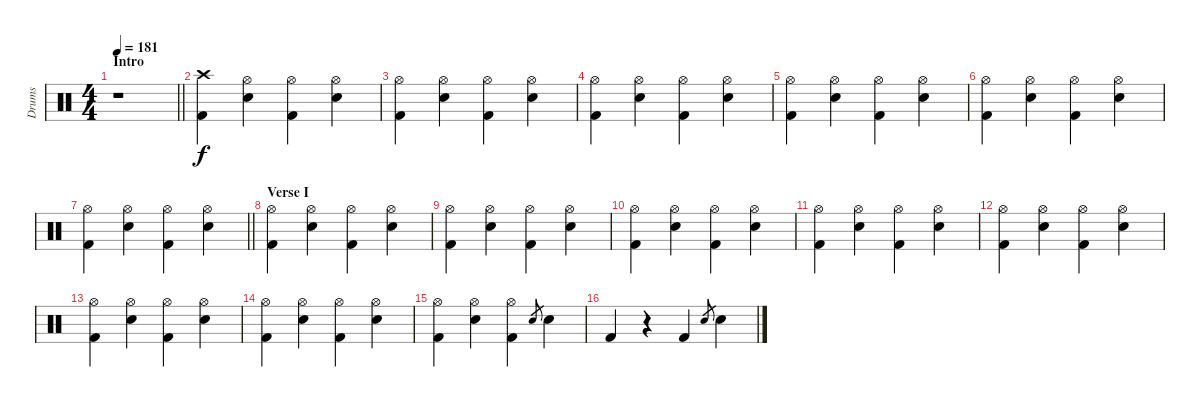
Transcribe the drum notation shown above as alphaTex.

\track ("Drums" "Drums") {instrument percussion}
\staff {score}
\articulation defaults
\ts (4 4)
\section ("" "Intro")
\tempo 181
\clef neutral
\barLineRight lightlight
\ks c
r.1{dy f} |
("Crash high (hit)" "Kick (hit) 2").4 ("Hi-Hat (open)" "Snare (hit) 2").4 ("Hi-Hat (open)" "Kick (hit) 2").4 ("Hi-Hat (open)" "Snare (hit) 2").4 |
("Hi-Hat (open)" "Kick (hit) 2").4 ("Hi-Hat (open)" "Snare (hit) 2").4 ("Hi-Hat (open)" "Kick (hit) 2").4 ("Hi-Hat (open)" "Snare (hit) 2").4 |
("Hi-Hat (open)" "Kick (hit) 2").4 ("Hi-Hat (open)" "Snare (hit) 2").4 ("Hi-Hat (open)" "Kick (hit) 2").4 ("Hi-Hat (open)" "Snare (hit) 2").4 |
("Hi-Hat (open)" "Kick (hit) 2").4 ("Hi-Hat (open)" "Snare (hit) 2").4 ("Hi-Hat (open)" "Kick (hit) 2").4 ("Hi-Hat (open)" "Snare (hit) 2").4 |
("Hi-Hat (open)" "Kick (hit) 2").4 ("Hi-Hat (open)" "Snare (hit) 2").4 ("Hi-Hat (open)" "Kick (hit) 2").4 ("Hi-Hat (open)" "Snare (hit) 2").4 |
\barLineRight lightlight
("Hi-Hat (open)" "Kick (hit) 2").4 ("Hi-Hat (open)" "Snare (hit) 2").4 ("Hi-Hat (open)" "Kick (hit) 2").4 ("Hi-Hat (open)" "Snare (hit) 2").4 |
\section ("" "Verse I")
("Hi-Hat (open)" "Kick (hit) 2").4 ("Hi-Hat (open)" "Snare (hit) 2").4 ("Hi-Hat (open)" "Kick (hit) 2").4 ("Hi-Hat (open)" "Snare (hit) 2").4 |
("Hi-Hat (open)" "Kick (hit) 2").4 ("Hi-Hat (open)" "Snare (hit) 2").4 ("Hi-Hat (open)" "Kick (hit) 2").4 ("Hi-Hat (open)" "Snare (hit) 2").4 |
("Hi-Hat (open)" "Kick (hit) 2").4 ("Hi-Hat (open)" "Snare (hit) 2").4 ("Hi-Hat (open)" "Kick (hit) 2").4 ("Hi-Hat (open)" "Snare (hit) 2").4 |
("Hi-Hat (open)" "Kick (hit) 2").4 ("Hi-Hat (open)" "Snare (hit) 2").4 ("Hi-Hat (open)" "Kick (hit) 2").4 ("Hi-Hat (open)" "Snare (hit) 2").4 |
("Hi-Hat (open)" "Kick (hit) 2").4 ("Hi-Hat (open)" "Snare (hit) 2").4 ("Hi-Hat (open)" "Kick (hit) 2").4 ("Hi-Hat (open)" "Snare (hit) 2").4 |
("Hi-Hat (open)" "Kick (hit) 2").4 ("Hi-Hat (open)" "Snare (hit) 2").4 ("Hi-Hat (open)" "Kick (hit) 2").4 ("Hi-Hat (open)" "Snare (hit) 2").4 |
("Hi-Hat (open)" "Kick (hit) 2").4 ("Hi-Hat (open)" "Snare (hit) 2").4 ("Hi-Hat (open)" "Kick (hit) 2").4 ("Hi-Hat (open)" "Snare (hit) 2").4 |
("Hi-Hat (open)" "Kick (hit) 2").4 ("Hi-Hat (open)" "Snare (hit) 2").4 ("Hi-Hat (open)" "Kick (hit) 2").4 "Snare (hit) 2".8{gr} "Snare (hit) 2".4 |
"Kick (hit) 2".4 r.4 "Kick (hit) 2".4 "Snare (hit) 2".8{gr} "Snare (hit) 2".4
